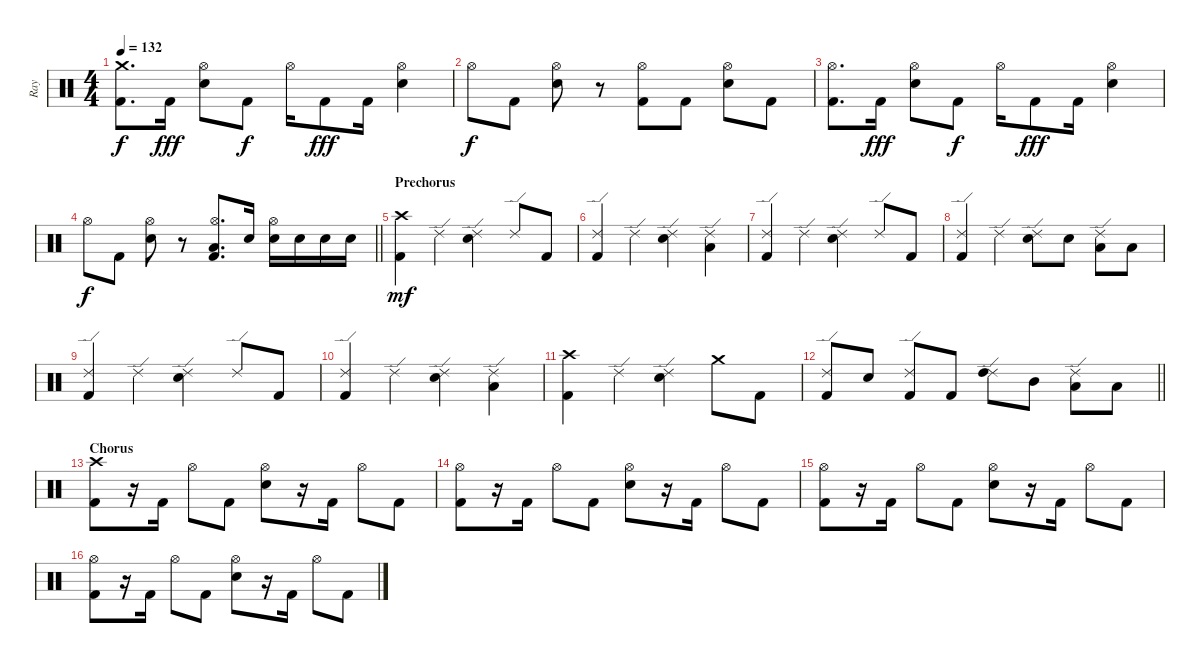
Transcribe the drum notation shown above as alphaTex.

\track ("Ray" "Ray") {instrument percussion}
\staff {score}
\articulation defaults
\ts (4 4)
\tempo 132
\clef neutral
\ks c
("Crash medium (hit)" "Kick (hit) 2").8{d dy f} "Kick (hit) 2".16{dy fff} ("Hi-Hat (open)" "Snare (hit) 2").8 "Kick (hit) 2".8{dy f} "Hi-Hat (open)".16 "Kick (hit) 2".8{dy fff} "Kick (hit) 2".16 ("Hi-Hat (open)" "Snare (hit) 2").4 |
"Hi-Hat (open)".8{dy f} "Kick (hit) 2".8 ("Hi-Hat (open)" "Snare (hit) 2").8 r.8 ("Hi-Hat (open)" "Kick (hit) 2").8 "Kick (hit) 2".8 ("Hi-Hat (open)" "Snare (hit) 2").8 "Kick (hit) 2".8 |
("Hi-Hat (open)" "Kick (hit) 2").8{d} "Kick (hit) 2".16{dy fff} ("Hi-Hat (open)" "Snare (hit) 2").8 "Kick (hit) 2".8{dy f} "Hi-Hat (open)".16 "Kick (hit) 2".8{dy fff} "Kick (hit) 2".16 ("Hi-Hat (open)" "Snare (hit) 2").4 |
\barLineRight lightlight "Hi-Hat (open)".8{dy f} "Kick (hit) 2".8
("Hi-Hat (open)" "Snare (hit) 2").8 r.8 ("Hi-Hat (open)" "Low Floor Tom (hit)" "Kick (hit) 2").8{d} "Snare (hit) 2".16 ("Hi-Hat (open)" "Snare (hit) 2").16 "Snare (hit) 2".16 "Snare (hit) 2".16 "Snare (hit) 2".16 |
\section ("" "Prechorus")
("Crash high (hit)" "Kick (hit) 2").4{dy mf} "Ride (edge) 2".4 ("Ride (edge) 2" "Snare (hit) 2").4 "Ride (edge) 2".8 "Kick (hit) 2".8 |
("Ride (edge) 2" "Kick (hit) 2").4 "Ride (edge) 2".4 ("Ride (edge) 2" "Snare (hit) 2").4 ("Ride (edge) 2" "Low Tom (hit)").4 |
("Ride (edge) 2" "Kick (hit) 2").4 "Ride (edge) 2".4 ("Ride (edge) 2" "Snare (hit) 2").4 "Ride (edge) 2".8 "Kick (hit) 2".8 |
("Ride (edge) 2" "Kick (hit) 2").4 "Ride (edge) 2".4 ("Ride (edge) 2" "Snare (hit) 2").8 "Snare (hit) 2".8 ("Ride (edge) 2" "Low Tom (hit)").8 "Low Floor Tom (hit)".8 |
("Ride (edge) 2" "Kick (hit) 2").4 "Ride (edge) 2".4 ("Ride (edge) 2" "Snare (hit) 2").4 "Ride (edge) 2".8 "Kick (hit) 2".8 |
("Ride (edge) 2" "Kick (hit) 2").4 "Ride (edge) 2".4 ("Ride (edge) 2" "Snare (hit) 2").4 ("Ride (edge) 2" "Low Tom (hit)").4 |
("Crash high (hit)" "Kick (hit) 2").4 "Ride (edge) 2".4 ("Ride (edge) 2" "Snare (hit) 2").4 "Crash medium (hit)".8 "Kick (hit) 2".8 |
\barLineRight lightlight
("Ride (edge) 2" "Kick (hit) 2").8 "Snare (hit) 2".8 ("Ride (edge) 2" "Kick (hit) 2").8 "Kick (hit) 2".8 ("Ride (edge) 2" "High Tom (hit)").8 "Mid Tom (hit)".8 ("Ride (edge) 2" "Low Tom (hit)").8 "Low Floor Tom (hit)".8 |
\section ("" "Chorus")
("Crash high (hit)" "Kick (hit) 2").8 r.16 "Kick (hit) 2".16 "Hi-Hat (open)".8 "Kick (hit) 2".8 ("Hi-Hat (open)" "Snare (hit) 2").8 r.16 "Kick (hit) 2".16 "Hi-Hat (open)".8 "Kick (hit) 2".8 |
("Hi-Hat (open)" "Kick (hit) 2").8 r.16 "Kick (hit) 2".16 "Hi-Hat (open)".8 "Kick (hit) 2".8 ("Hi-Hat (open)" "Snare (hit) 2").8 r.16 "Kick (hit) 2".16 "Hi-Hat (open)".8 "Kick (hit) 2".8 |
("Hi-Hat (open)" "Kick (hit) 2").8 r.16 "Kick (hit) 2".16 "Hi-Hat (open)".8 "Kick (hit) 2".8 ("Hi-Hat (open)" "Snare (hit) 2").8 r.16 "Kick (hit) 2".16 "Hi-Hat (open)".8 "Kick (hit) 2".8 |
("Hi-Hat (open)" "Kick (hit) 2").8 r.16 "Kick (hit) 2".16 "Hi-Hat (open)".8 "Kick (hit) 2".8 ("Hi-Hat (open)" "Snare (hit) 2").8 r.16 "Kick (hit) 2".16 "Hi-Hat (open)".8 "Kick (hit) 2".8
